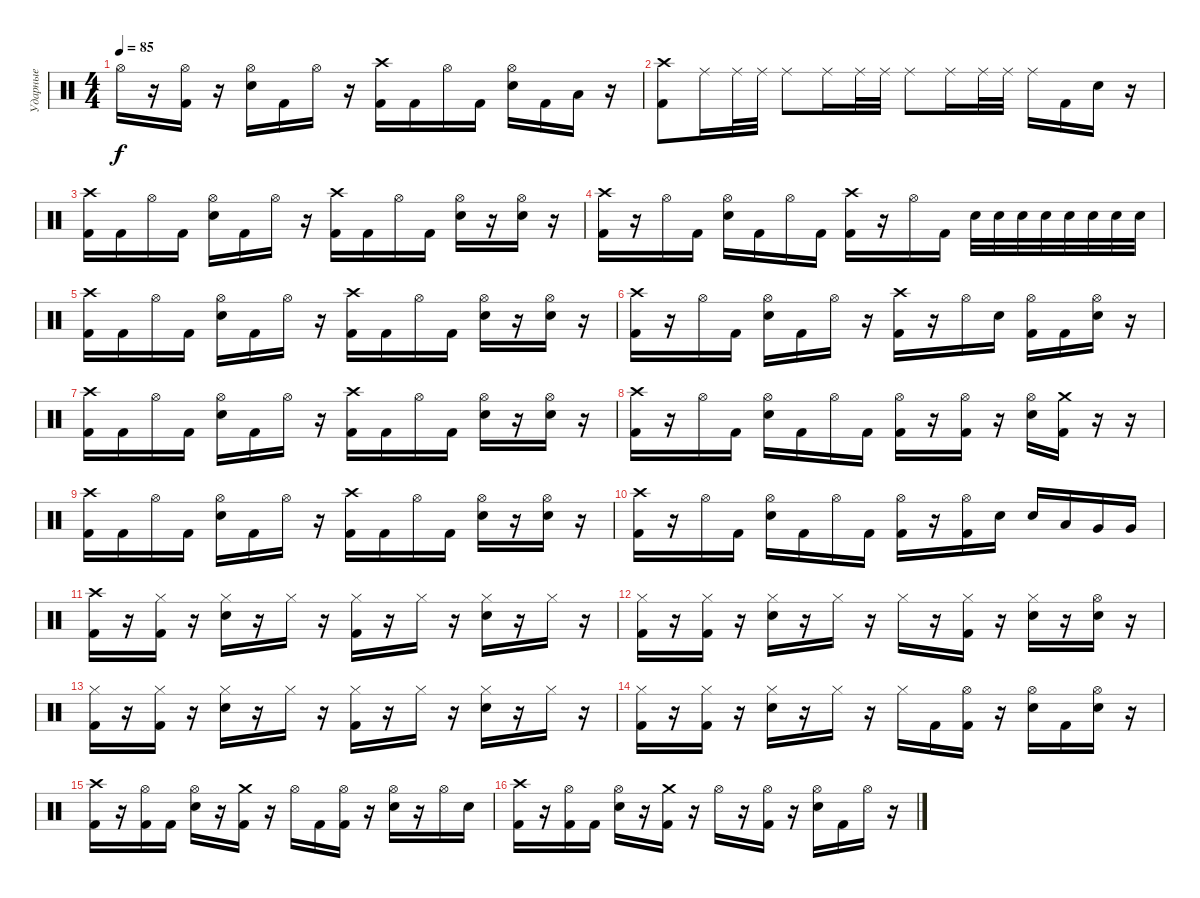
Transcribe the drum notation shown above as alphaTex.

\track ("Ударные" "Ударные") {instrument percussion}
\staff {score}
\articulation defaults
\ts (4 4)
\tempo 85
\clef neutral
\ks c "Hi-Hat (open)".16{dy f}
r.16 ("Hi-Hat (open)" "Kick (hit) 2").16 r.16 ("Hi-Hat (open)" "Electric Snare (hit)").16 "Kick (hit) 2".16 "Hi-Hat (open)".16 r.16 ("Crash high (hit)" "Kick (hit) 2").16 "Kick (hit) 2".16 "Hi-Hat (open)".16 "Kick (hit) 2".16 ("Hi-Hat (open)" "Electric Snare (hit)").16 "Kick (hit) 2".16 "Low Floor Tom (hit)".16 r.16 |
("Crash high (hit)" "Kick (hit) 2").8 "Ride (middle)".16 "Ride (middle)".32 "Ride (middle)".32 "Ride (middle)".8 "Ride (middle)".16 "Ride (middle)".32 "Ride (middle)".32 "Ride (middle)".8 "Ride (middle)".16 "Ride (middle)".32 "Ride (middle)".32 "Ride (middle)".16 "Kick (hit) 2".16 "Electric Snare (hit)".16 r.16 |
("Crash high (hit)" "Kick (hit) 2").16 "Kick (hit) 2".16 "Hi-Hat (open)".16 "Kick (hit) 2".16 ("Hi-Hat (open)" "Electric Snare (hit)").16 "Kick (hit) 2".16 "Hi-Hat (open)".16 r.16 ("Crash high (hit)" "Kick (hit) 2").16 "Kick (hit) 2".16 "Hi-Hat (open)".16 "Kick (hit) 2".16 ("Hi-Hat (open)" "Electric Snare (hit)").16 r.16 ("Hi-Hat (open)" "Electric Snare (hit)").16 r.16 |
("Crash high (hit)" "Kick (hit) 2").16 r.16 "Hi-Hat (open)".16 "Kick (hit) 2".16 ("Hi-Hat (open)" "Electric Snare (hit)").16 "Kick (hit) 2".16 "Hi-Hat (open)".16 "Kick (hit) 2".16 ("Crash high (hit)" "Kick (hit) 2").16 r.16 "Hi-Hat (open)".16 "Kick (hit) 2".16 "Electric Snare (hit)".32 "Electric Snare (hit)".32 "Electric Snare (hit)".32 "Electric Snare (hit)".32 "Electric Snare (hit)".32 "Electric Snare (hit)".32 "Electric Snare (hit)".32 "Electric Snare (hit)".32 |
("Crash high (hit)" "Kick (hit) 2").16 "Kick (hit) 2".16 "Hi-Hat (open)".16 "Kick (hit) 2".16 ("Hi-Hat (open)" "Electric Snare (hit)").16 "Kick (hit) 2".16 "Hi-Hat (open)".16 r.16 ("Crash high (hit)" "Kick (hit) 2").16 "Kick (hit) 2".16 "Hi-Hat (open)".16 "Kick (hit) 2".16 ("Hi-Hat (open)" "Electric Snare (hit)").16 r.16 ("Hi-Hat (open)" "Electric Snare (hit)").16 r.16 |
("Crash high (hit)" "Kick (hit) 2").16 r.16 "Hi-Hat (open)".16 "Kick (hit) 2".16 ("Hi-Hat (open)" "Electric Snare (hit)").16 "Kick (hit) 2".16 "Hi-Hat (open)".16 r.16 ("Crash high (hit)" "Kick (hit) 2").16 r.16 "Hi-Hat (open)".16 "Electric Snare (hit)".16 ("Hi-Hat (open)" "Kick (hit) 2").16 "Kick (hit) 2".16 ("Hi-Hat (open)" "Electric Snare (hit)").16 r.16 |
("Crash high (hit)" "Kick (hit) 2").16 "Kick (hit) 2".16 "Hi-Hat (open)".16 "Kick (hit) 2".16 ("Hi-Hat (open)" "Electric Snare (hit)").16 "Kick (hit) 2".16 "Hi-Hat (open)".16 r.16 ("Crash high (hit)" "Kick (hit) 2").16 "Kick (hit) 2".16 "Hi-Hat (open)".16 "Kick (hit) 2".16 ("Hi-Hat (open)" "Electric Snare (hit)").16 r.16 ("Hi-Hat (open)" "Electric Snare (hit)").16 r.16 |
("Crash high (hit)" "Kick (hit) 2").16 r.16 "Hi-Hat (open)".16 "Kick (hit) 2".16 ("Hi-Hat (open)" "Electric Snare (hit)").16 "Kick (hit) 2".16 "Hi-Hat (open)".16 "Kick (hit) 2".16 ("Hi-Hat (open)" "Kick (hit) 2").16 r.16 ("Hi-Hat (open)" "Kick (hit) 2").16 r.16 ("Hi-Hat (open)" "Electric Snare (hit)").16 ("Crash medium (hit)" "Kick (hit) 2").16 r.16 r.16 |
("Crash high (hit)" "Kick (hit) 2").16 "Kick (hit) 2".16 "Hi-Hat (open)".16 "Kick (hit) 2".16 ("Hi-Hat (open)" "Electric Snare (hit)").16 "Kick (hit) 2".16 "Hi-Hat (open)".16 r.16 ("Crash high (hit)" "Kick (hit) 2").16 "Kick (hit) 2".16 "Hi-Hat (open)".16 "Kick (hit) 2".16 ("Hi-Hat (open)" "Electric Snare (hit)").16 r.16 ("Hi-Hat (open)" "Electric Snare (hit)").16 r.16 |
("Crash high (hit)" "Kick (hit) 2").16 r.16 "Hi-Hat (open)".16 "Kick (hit) 2".16 ("Hi-Hat (open)" "Electric Snare (hit)").16 "Kick (hit) 2".16 "Hi-Hat (open)".16 "Kick (hit) 2".16 ("Hi-Hat (open)" "Kick (hit) 2").16 r.16 ("Hi-Hat (open)" "Kick (hit) 2").16 "Electric Snare (hit)".16 "Electric Snare (hit)".16 "Low Tom (hit)".16 "Very Low Tom (hit)".16 "Very Low Tom (hit)".16 |
("Crash high (hit)" "Kick (hit) 2").16 r.16 ("Hi-Hat (closed)" "Kick (hit) 2").16 r.16 ("Hi-Hat (closed)" "Electric Snare (hit)").16 r.16 "Hi-Hat (closed)".16 r.16 ("Hi-Hat (closed)" "Kick (hit) 2").16 r.16 "Hi-Hat (closed)".16 r.16 ("Hi-Hat (closed)" "Electric Snare (hit)").16 r.16 "Hi-Hat (closed)".16 r.16 |
("Hi-Hat (closed)" "Kick (hit) 2").16 r.16 ("Hi-Hat (closed)" "Kick (hit) 2").16 r.16 ("Hi-Hat (closed)" "Electric Snare (hit)").16 r.16 "Hi-Hat (closed)".16 r.16 "Hi-Hat (closed)".16 r.16 ("Hi-Hat (closed)" "Kick (hit) 2").16 r.16 ("Hi-Hat (closed)" "Electric Snare (hit)").16 r.16 ("Hi-Hat (open)" "Electric Snare (hit)").16 r.16 |
("Hi-Hat (closed)" "Kick (hit) 2").16 r.16 ("Hi-Hat (closed)" "Kick (hit) 2").16 r.16 ("Hi-Hat (closed)" "Electric Snare (hit)").16 r.16 "Hi-Hat (closed)".16 r.16 ("Hi-Hat (closed)" "Kick (hit) 2").16 r.16 "Hi-Hat (closed)".16 r.16 ("Hi-Hat (closed)" "Electric Snare (hit)").16 r.16 "Hi-Hat (closed)".16 r.16 |
("Hi-Hat (closed)" "Kick (hit) 2").16 r.16 ("Hi-Hat (closed)" "Kick (hit) 2").16 r.16 ("Hi-Hat (closed)" "Electric Snare (hit)").16 r.16 "Hi-Hat (closed)".16 r.16 "Hi-Hat (closed)".16 "Kick (hit) 2".16 ("Hi-Hat (open)" "Kick (hit) 2").16 r.16 ("Hi-Hat (open)" "Electric Snare (hit)").16 "Kick (hit) 2".16 ("Hi-Hat (open)" "Electric Snare (hit)").16 r.16 |
("Crash high (hit)" "Kick (hit) 2").16 r.16 ("Hi-Hat (open)" "Kick (hit) 2").16 "Kick (hit) 2".16 ("Hi-Hat (open)" "Electric Snare (hit)").16 r.16 ("Crash medium (hit)" "Kick (hit) 2").16 r.16 "Hi-Hat (open)".16 "Kick (hit) 2".16 ("Hi-Hat (open)" "Kick (hit) 2").16 r.16 ("Hi-Hat (open)" "Electric Snare (hit)").16 r.16 "Hi-Hat (open)".16 "Electric Snare (hit)".16 |
("Crash high (hit)" "Kick (hit) 2").16 r.16 ("Hi-Hat (open)" "Kick (hit) 2").16 "Kick (hit) 2".16 ("Hi-Hat (open)" "Electric Snare (hit)").16 r.16 ("Crash medium (hit)" "Kick (hit) 2").16 r.16 "Hi-Hat (open)".16 r.16 ("Hi-Hat (open)" "Kick (hit) 2").16 r.16 ("Hi-Hat (open)" "Electric Snare (hit)").16 "Kick (hit) 2".16 "Hi-Hat (open)".16 r.16
